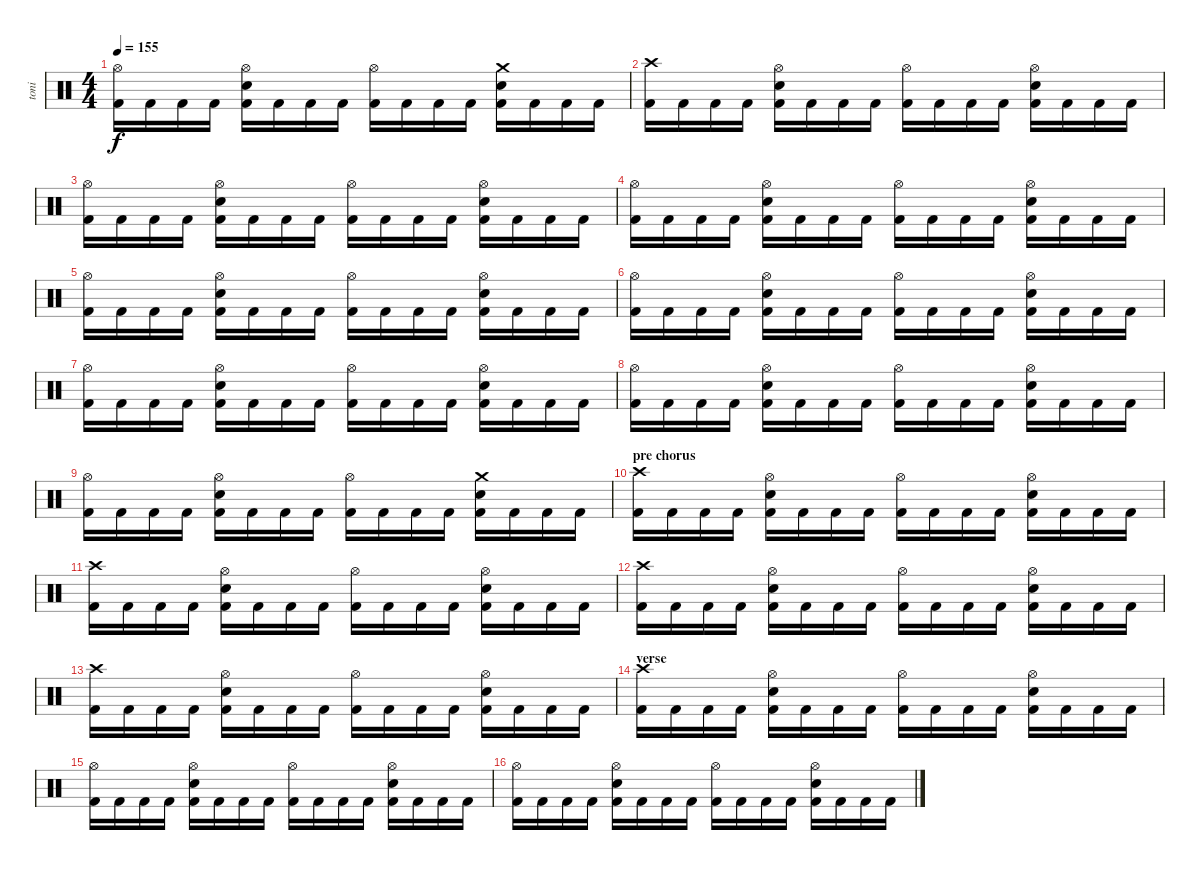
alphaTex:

\track ("toni" "toni") {instrument percussion}
\staff {score}
\articulation defaults
\ts (4 4)
\tempo 155
\clef neutral
\ks c
("Hi-Hat (open)" "Kick (hit) 2").16{dy f} "Kick (hit) 2".16 "Kick (hit) 2".16 "Kick (hit) 2".16 ("Hi-Hat (open)" "Snare (hit) 2" "Kick (hit) 2").16 "Kick (hit) 2".16 "Kick (hit) 2".16 "Kick (hit) 2".16 ("Hi-Hat (open)" "Kick (hit) 2").16 "Kick (hit) 2".16 "Kick (hit) 2".16 "Kick (hit) 2".16 ("Crash medium (hit)" "Snare (hit) 2" "Kick (hit) 2").16 "Kick (hit) 2".16 "Kick (hit) 2".16 "Kick (hit) 2".16 |
("Crash high (hit)" "Kick (hit) 2").16 "Kick (hit) 2".16 "Kick (hit) 2".16 "Kick (hit) 2".16 ("Hi-Hat (open)" "Snare (hit) 2" "Kick (hit) 2").16 "Kick (hit) 2".16 "Kick (hit) 2".16 "Kick (hit) 2".16 ("Hi-Hat (open)" "Kick (hit) 2").16 "Kick (hit) 2".16 "Kick (hit) 2".16 "Kick (hit) 2".16 ("Hi-Hat (open)" "Snare (hit) 2" "Kick (hit) 2").16 "Kick (hit) 2".16 "Kick (hit) 2".16 "Kick (hit) 2".16 |
("Hi-Hat (open)" "Kick (hit) 2").16 "Kick (hit) 2".16 "Kick (hit) 2".16 "Kick (hit) 2".16 ("Hi-Hat (open)" "Snare (hit) 2" "Kick (hit) 2").16 "Kick (hit) 2".16 "Kick (hit) 2".16 "Kick (hit) 2".16 ("Hi-Hat (open)" "Kick (hit) 2").16 "Kick (hit) 2".16 "Kick (hit) 2".16 "Kick (hit) 2".16 ("Hi-Hat (open)" "Snare (hit) 2" "Kick (hit) 2").16 "Kick (hit) 2".16 "Kick (hit) 2".16 "Kick (hit) 2".16 |
("Hi-Hat (open)" "Kick (hit) 2").16 "Kick (hit) 2".16 "Kick (hit) 2".16 "Kick (hit) 2".16 ("Hi-Hat (open)" "Snare (hit) 2" "Kick (hit) 2").16 "Kick (hit) 2".16 "Kick (hit) 2".16 "Kick (hit) 2".16 ("Hi-Hat (open)" "Kick (hit) 2").16 "Kick (hit) 2".16 "Kick (hit) 2".16 "Kick (hit) 2".16 ("Hi-Hat (open)" "Snare (hit) 2" "Kick (hit) 2").16 "Kick (hit) 2".16 "Kick (hit) 2".16 "Kick (hit) 2".16 |
("Hi-Hat (open)" "Kick (hit) 2").16 "Kick (hit) 2".16 "Kick (hit) 2".16 "Kick (hit) 2".16 ("Hi-Hat (open)" "Snare (hit) 2" "Kick (hit) 2").16 "Kick (hit) 2".16 "Kick (hit) 2".16 "Kick (hit) 2".16 ("Hi-Hat (open)" "Kick (hit) 2").16 "Kick (hit) 2".16 "Kick (hit) 2".16 "Kick (hit) 2".16 ("Hi-Hat (open)" "Snare (hit) 2" "Kick (hit) 2").16 "Kick (hit) 2".16 "Kick (hit) 2".16 "Kick (hit) 2".16 |
("Hi-Hat (open)" "Kick (hit) 2").16 "Kick (hit) 2".16 "Kick (hit) 2".16 "Kick (hit) 2".16 ("Hi-Hat (open)" "Snare (hit) 2" "Kick (hit) 2").16 "Kick (hit) 2".16 "Kick (hit) 2".16 "Kick (hit) 2".16 ("Hi-Hat (open)" "Kick (hit) 2").16 "Kick (hit) 2".16 "Kick (hit) 2".16 "Kick (hit) 2".16 ("Hi-Hat (open)" "Snare (hit) 2" "Kick (hit) 2").16 "Kick (hit) 2".16 "Kick (hit) 2".16 "Kick (hit) 2".16 |
("Hi-Hat (open)" "Kick (hit) 2").16 "Kick (hit) 2".16 "Kick (hit) 2".16 "Kick (hit) 2".16 ("Hi-Hat (open)" "Snare (hit) 2" "Kick (hit) 2").16 "Kick (hit) 2".16 "Kick (hit) 2".16 "Kick (hit) 2".16 ("Hi-Hat (open)" "Kick (hit) 2").16 "Kick (hit) 2".16 "Kick (hit) 2".16 "Kick (hit) 2".16 ("Hi-Hat (open)" "Snare (hit) 2" "Kick (hit) 2").16 "Kick (hit) 2".16 "Kick (hit) 2".16 "Kick (hit) 2".16 |
("Hi-Hat (open)" "Kick (hit) 2").16 "Kick (hit) 2".16 "Kick (hit) 2".16 "Kick (hit) 2".16 ("Hi-Hat (open)" "Snare (hit) 2" "Kick (hit) 2").16 "Kick (hit) 2".16 "Kick (hit) 2".16 "Kick (hit) 2".16 ("Hi-Hat (open)" "Kick (hit) 2").16 "Kick (hit) 2".16 "Kick (hit) 2".16 "Kick (hit) 2".16 ("Hi-Hat (open)" "Snare (hit) 2" "Kick (hit) 2").16 "Kick (hit) 2".16 "Kick (hit) 2".16 "Kick (hit) 2".16 |
("Hi-Hat (open)" "Kick (hit) 2").16 "Kick (hit) 2".16 "Kick (hit) 2".16 "Kick (hit) 2".16 ("Hi-Hat (open)" "Snare (hit) 2" "Kick (hit) 2").16 "Kick (hit) 2".16 "Kick (hit) 2".16 "Kick (hit) 2".16 ("Hi-Hat (open)" "Kick (hit) 2").16 "Kick (hit) 2".16 "Kick (hit) 2".16 "Kick (hit) 2".16 ("Crash medium (hit)" "Snare (hit) 2" "Kick (hit) 2").16 "Kick (hit) 2".16 "Kick (hit) 2".16 "Kick (hit) 2".16 |
\section ("" "pre chorus")
("Crash high (hit)" "Kick (hit) 2").16 "Kick (hit) 2".16 "Kick (hit) 2".16 "Kick (hit) 2".16 ("Hi-Hat (open)" "Snare (hit) 2" "Kick (hit) 2").16 "Kick (hit) 2".16 "Kick (hit) 2".16 "Kick (hit) 2".16 ("Hi-Hat (open)" "Kick (hit) 2").16 "Kick (hit) 2".16 "Kick (hit) 2".16 "Kick (hit) 2".16 ("Hi-Hat (open)" "Snare (hit) 2" "Kick (hit) 2").16 "Kick (hit) 2".16 "Kick (hit) 2".16 "Kick (hit) 2".16 |
("Crash high (hit)" "Kick (hit) 2").16 "Kick (hit) 2".16 "Kick (hit) 2".16 "Kick (hit) 2".16 ("Hi-Hat (open)" "Snare (hit) 2" "Kick (hit) 2").16 "Kick (hit) 2".16 "Kick (hit) 2".16 "Kick (hit) 2".16 ("Hi-Hat (open)" "Kick (hit) 2").16 "Kick (hit) 2".16 "Kick (hit) 2".16 "Kick (hit) 2".16 ("Hi-Hat (open)" "Snare (hit) 2" "Kick (hit) 2").16 "Kick (hit) 2".16 "Kick (hit) 2".16 "Kick (hit) 2".16 |
("Crash high (hit)" "Kick (hit) 2").16 "Kick (hit) 2".16 "Kick (hit) 2".16 "Kick (hit) 2".16 ("Hi-Hat (open)" "Snare (hit) 2" "Kick (hit) 2").16 "Kick (hit) 2".16 "Kick (hit) 2".16 "Kick (hit) 2".16 ("Hi-Hat (open)" "Kick (hit) 2").16 "Kick (hit) 2".16 "Kick (hit) 2".16 "Kick (hit) 2".16 ("Hi-Hat (open)" "Snare (hit) 2" "Kick (hit) 2").16 "Kick (hit) 2".16 "Kick (hit) 2".16 "Kick (hit) 2".16 |
("Crash high (hit)" "Kick (hit) 2").16 "Kick (hit) 2".16 "Kick (hit) 2".16 "Kick (hit) 2".16 ("Hi-Hat (open)" "Snare (hit) 2" "Kick (hit) 2").16 "Kick (hit) 2".16 "Kick (hit) 2".16 "Kick (hit) 2".16 ("Hi-Hat (open)" "Kick (hit) 2").16 "Kick (hit) 2".16 "Kick (hit) 2".16 "Kick (hit) 2".16 ("Hi-Hat (open)" "Snare (hit) 2" "Kick (hit) 2").16 "Kick (hit) 2".16 "Kick (hit) 2".16 "Kick (hit) 2".16 |
\section ("" "verse")
("Crash high (hit)" "Kick (hit) 2").16 "Kick (hit) 2".16 "Kick (hit) 2".16 "Kick (hit) 2".16 ("Hi-Hat (open)" "Snare (hit) 2" "Kick (hit) 2").16 "Kick (hit) 2".16 "Kick (hit) 2".16 "Kick (hit) 2".16 ("Hi-Hat (open)" "Kick (hit) 2").16 "Kick (hit) 2".16 "Kick (hit) 2".16 "Kick (hit) 2".16 ("Hi-Hat (open)" "Snare (hit) 2" "Kick (hit) 2").16 "Kick (hit) 2".16 "Kick (hit) 2".16 "Kick (hit) 2".16 |
("Hi-Hat (open)" "Kick (hit) 2").16 "Kick (hit) 2".16 "Kick (hit) 2".16 "Kick (hit) 2".16 ("Hi-Hat (open)" "Snare (hit) 2" "Kick (hit) 2").16 "Kick (hit) 2".16 "Kick (hit) 2".16 "Kick (hit) 2".16 ("Hi-Hat (open)" "Kick (hit) 2").16 "Kick (hit) 2".16 "Kick (hit) 2".16 "Kick (hit) 2".16 ("Hi-Hat (open)" "Snare (hit) 2" "Kick (hit) 2").16 "Kick (hit) 2".16 "Kick (hit) 2".16 "Kick (hit) 2".16 |
("Hi-Hat (open)" "Kick (hit) 2").16 "Kick (hit) 2".16 "Kick (hit) 2".16 "Kick (hit) 2".16 ("Hi-Hat (open)" "Snare (hit) 2" "Kick (hit) 2").16 "Kick (hit) 2".16 "Kick (hit) 2".16 "Kick (hit) 2".16 ("Hi-Hat (open)" "Kick (hit) 2").16 "Kick (hit) 2".16 "Kick (hit) 2".16 "Kick (hit) 2".16 ("Hi-Hat (open)" "Snare (hit) 2" "Kick (hit) 2").16 "Kick (hit) 2".16 "Kick (hit) 2".16 "Kick (hit) 2".16
